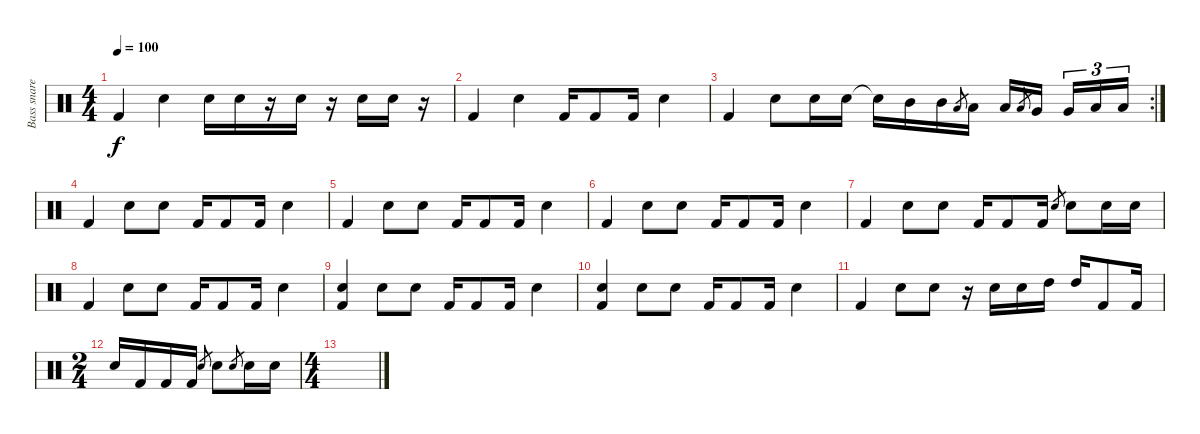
\track ("Bass snare tom" "Bass snare") {instrument percussion}
\staff {score}
\articulation defaults
\ts (4 4)
\tempo 100
\clef neutral
\ks c "Kick (hit) 2".4{dy f} "Electric Snare (hit)".4 "Electric Snare (hit)".16 "Electric Snare (hit)".16
r.16 "Electric Snare (hit)".16 r.16 "Electric Snare (hit)".16 "Electric Snare (hit)".16 r.16 |
"Kick (hit) 2".4 "Electric Snare (hit)".4 "Kick (hit) 2".16 "Kick (hit) 2".8 "Kick (hit) 2".16 "Electric Snare (hit)".4 |
\rc 2 "Kick (hit) 2".4 "Electric Snare (hit)".8 "Electric Snare (hit)".16 "Electric Snare (hit)".16 "Snare (hit)"{t}.16 "Mid Tom (hit)".16 "Mid Tom (hit)".16 "Low Tom (hit)".8{gr} "Low Tom (hit)".16 "Low Tom (hit)".16 "Low Tom (hit)".8{gr} "Very Low Tom (hit)".16 "Very Low Tom (hit)".16{tu (3 2)} "Low Floor Tom (hit)".16{tu (3 2)} "Low Floor Tom (hit)".16{tu (3 2)}
|
"Kick (hit) 2".4 "Electric Snare (hit)".8 "Electric Snare (hit)".8 "Kick (hit) 2".16 "Kick (hit) 2".8 "Kick (hit) 2".16 "Electric Snare (hit)".4 |
"Kick (hit) 2".4 "Electric Snare (hit)".8 "Electric Snare (hit)".8 "Kick (hit) 2".16 "Kick (hit) 2".8 "Kick (hit) 2".16 "Electric Snare (hit)".4 |
"Kick (hit) 2".4 "Electric Snare (hit)".8 "Electric Snare (hit)".8 "Kick (hit) 2".16 "Kick (hit) 2".8 "Kick (hit) 2".16 "Electric Snare (hit)".4 |
"Kick (hit) 2".4 "Electric Snare (hit)".8 "Electric Snare (hit)".8 "Kick (hit) 2".16 "Kick (hit) 2".8 "Kick (hit) 2".16 "Electric Snare (hit)".8{gr} "Electric Snare (hit)".8 "Electric Snare (hit)".16 "Electric Snare (hit)".16 |
"Kick (hit) 2".4 "Electric Snare (hit)".8 "Electric Snare (hit)".8 "Kick (hit) 2".16 "Kick (hit) 2".8 "Kick (hit) 2".16 "Electric Snare (hit)".4 |
("Electric Snare (hit)" "Kick (hit) 2").4 "Electric Snare (hit)".8 "Electric Snare (hit)".8 "Kick (hit) 2".16 "Kick (hit) 2".8 "Kick (hit) 2".16 "Electric Snare (hit)".4 |
("Electric Snare (hit)" "Kick (hit) 2").4 "Electric Snare (hit)".8 "Electric Snare (hit)".8 "Kick (hit) 2".16 "Kick (hit) 2".8 "Kick (hit) 2".16 "Electric Snare (hit)".4 |
"Kick (hit) 2".4 "Electric Snare (hit)".8 "Electric Snare (hit)".8 r.16 "Electric Snare (hit)".16 "Electric Snare (hit)".16 "High Tom (hit)".16 "High Tom (hit)".16 "Kick (hit) 2".8 "Kick (hit) 2".16 |
\ts (2 4)
"Electric Snare (hit)".16 "Kick (hit) 2".16 "Kick (hit) 2".16 "Kick (hit) 2".16 "Electric Snare (hit)".8{gr} "Electric Snare (hit)".8 "Electric Snare (hit)".8{gr} "Electric Snare (hit)".16 "Electric Snare (hit)".16 |
\ts (4 4)
